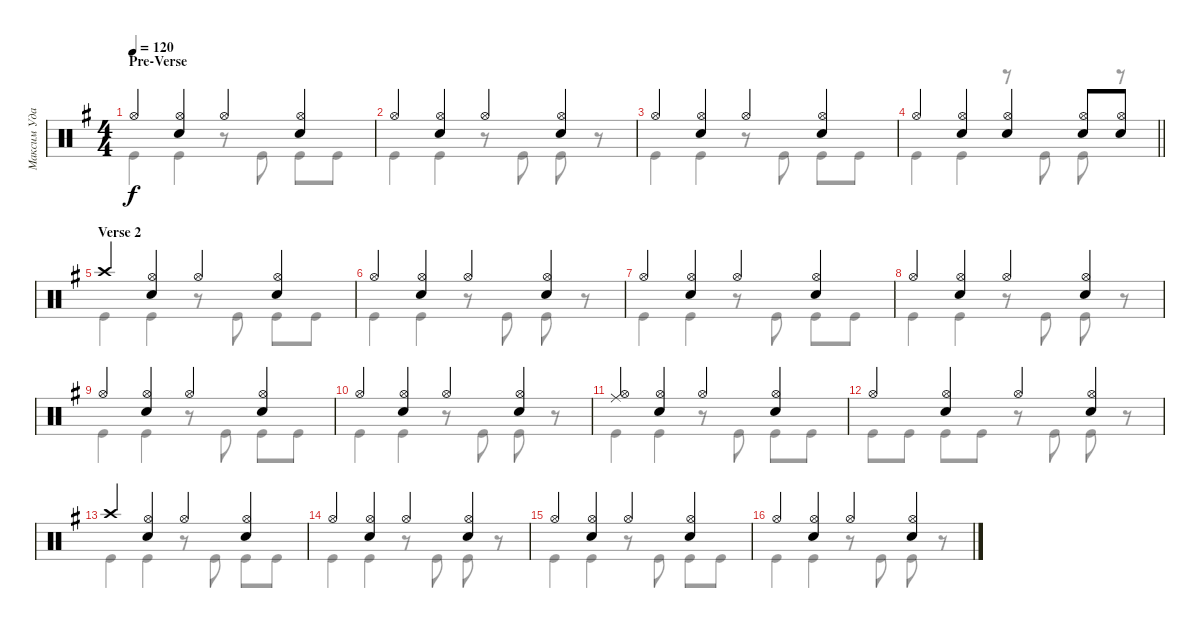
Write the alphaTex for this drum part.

\track ("Максим Удалов" "Максим Уда") {instrument percussion}
\staff {score}
\articulation defaults
\voice
\ts (4 4)
\section ("" "Pre-Verse")
\tempo 120
\clef neutral
\ks g "Hi-Hat (open)".4{dy f}
("Snare (hit) 2" "Hi-Hat (open)").4 "Hi-Hat (open)".4 ("Snare (hit) 2" "Hi-Hat (open)").4 |
"Hi-Hat (open)".4 ("Hi-Hat (open)" "Snare (hit) 2").4 "Hi-Hat (open)".4 ("Hi-Hat (open)" "Snare (hit) 2").4 |
"Hi-Hat (open)".4 ("Snare (hit) 2" "Hi-Hat (open)").4 "Hi-Hat (open)".4 ("Snare (hit) 2" "Hi-Hat (open)").4 |
\barLineRight lightlight "Hi-Hat (open)".4
("Hi-Hat (open)" "Snare (hit) 2").4 ("Snare (hit) 2" "Hi-Hat (open)").4 ("Snare (hit) 2" "Hi-Hat (open)").8 ("Snare (hit) 2" "Hi-Hat (open)").8 |
\section ("" "Verse 2")
"Crash high (hit)".4 ("Snare (hit) 2" "Hi-Hat (open)").4 "Hi-Hat (open)".4 ("Snare (hit) 2" "Hi-Hat (open)").4 |
"Hi-Hat (open)".4 ("Snare (hit) 2" "Hi-Hat (open)").4 "Hi-Hat (open)".4 ("Snare (hit) 2" "Hi-Hat (open)").4 |
"Hi-Hat (open)".4 ("Snare (hit) 2" "Hi-Hat (open)").4 "Hi-Hat (open)".4 ("Snare (hit) 2" "Hi-Hat (open)").4 |
"Hi-Hat (open)".4 ("Snare (hit) 2" "Hi-Hat (open)").4 "Hi-Hat (open)".4 ("Snare (hit) 2" "Hi-Hat (open)").4 |
"Hi-Hat (open)".4 ("Snare (hit) 2" "Hi-Hat (open)").4 "Hi-Hat (open)".4 ("Snare (hit) 2" "Hi-Hat (open)").4 |
"Hi-Hat (open)".4 ("Snare (hit) 2" "Hi-Hat (open)").4 "Hi-Hat (open)".4 ("Snare (hit) 2" "Hi-Hat (open)").4 |
("Hi-Hat (open)" "Ride (middle)").4 ("Snare (hit) 2" "Hi-Hat (open)").4 "Hi-Hat (open)".4 ("Snare (hit) 2" "Hi-Hat (open)").4 |
"Hi-Hat (open)".4 ("Snare (hit) 2" "Hi-Hat (open)").4 "Hi-Hat (open)".4 ("Snare (hit) 2" "Hi-Hat (open)").4 |
"Crash high (hit)".4 ("Snare (hit) 2" "Hi-Hat (open)").4 "Hi-Hat (open)".4 ("Snare (hit) 2" "Hi-Hat (open)").4 |
"Hi-Hat (open)".4 ("Snare (hit) 2" "Hi-Hat (open)").4 "Hi-Hat (open)".4 ("Snare (hit) 2" "Hi-Hat (open)").4 |
"Hi-Hat (open)".4 ("Snare (hit) 2" "Hi-Hat (open)").4 "Hi-Hat (open)".4 ("Snare (hit) 2" "Hi-Hat (open)").4 |
"Hi-Hat (open)".4 ("Snare (hit) 2" "Hi-Hat (open)").4 "Hi-Hat (open)".4 ("Snare (hit) 2" "Hi-Hat (open)").4
\voice
\clef neutral
\ottava regular
\simile none
\ks g "Kick (hit)".4{dy f} "Kick (hit)".4
r.8 "Kick (hit)".8 "Kick (hit)".8 "Kick (hit)".8 |
"Kick (hit)".4 "Kick (hit)".4 r.8 "Kick (hit)".8 "Kick (hit)".8 r.8 |
"Kick (hit)".4 "Kick (hit)".4 r.8 "Kick (hit)".8 "Kick (hit)".8 "Kick (hit)".8 |
\barLineRight lightlight "Kick (hit)".4 "Kick (hit)".4
r.8 "Kick (hit)".8 "Kick (hit)".8 r.8 |
"Kick (hit)".4 "Kick (hit)".4 r.8 "Kick (hit)".8 "Kick (hit)".8 "Kick (hit)".8 |
"Kick (hit)".4 "Kick (hit)".4 r.8 "Kick (hit)".8 "Kick (hit)".8 r.8 |
"Kick (hit)".4 "Kick (hit)".4 r.8 "Kick (hit)".8 "Kick (hit)".8 "Kick (hit)".8 |
"Kick (hit)".4 "Kick (hit)".4 r.8 "Kick (hit)".8 "Kick (hit)".8 r.8 |
"Kick (hit)".4 "Kick (hit)".4 r.8 "Kick (hit)".8 "Kick (hit)".8 "Kick (hit)".8 |
"Kick (hit)".4 "Kick (hit)".4 r.8 "Kick (hit)".8 "Kick (hit)".8 r.8 |
"Kick (hit)".4 "Kick (hit)".4 r.8 "Kick (hit)".8 "Kick (hit)".8 "Kick (hit)".8 |
"Kick (hit)".8 "Kick (hit)".8 "Kick (hit)".8 "Kick (hit)".8 r.8 "Kick (hit)".8 "Kick (hit)".8 r.8 |
"Kick (hit)".4 "Kick (hit)".4 r.8 "Kick (hit)".8 "Kick (hit)".8 "Kick (hit)".8 |
"Kick (hit)".4 "Kick (hit)".4 r.8 "Kick (hit)".8 "Kick (hit)".8 r.8 |
"Kick (hit)".4 "Kick (hit)".4 r.8 "Kick (hit)".8 "Kick (hit)".8 "Kick (hit)".8 |
"Kick (hit)".4 "Kick (hit)".4 r.8 "Kick (hit)".8 "Kick (hit)".8 r.8
